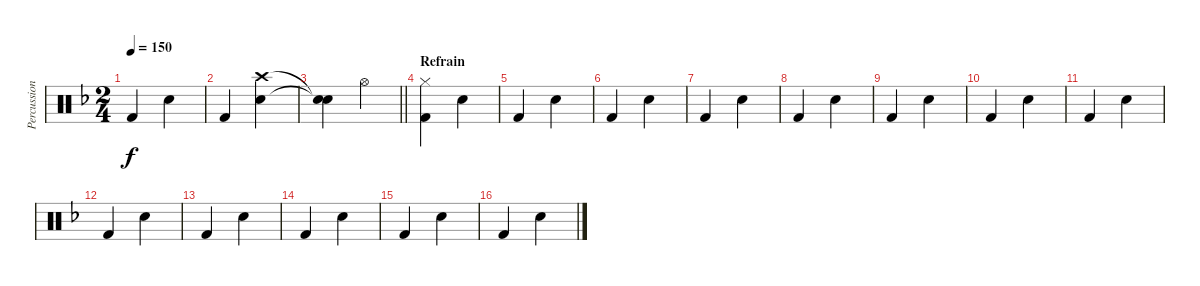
\track ("Percussions" "Percussion") {instrument percussion}
\staff {score}
\articulation defaults
\ts (2 4)
\tempo 150
\clef neutral
\ks f "Kick (hit) 2".4{dy f} "Snare (hit) 2".4
|
"Kick (hit) 2".4 ("Crash high (hit)" "Snare (hit) 2").4 |
\barLineRight lightlight
("Snare (hit)"{t} "Snare (hit)"{t}).4 "Hi-Hat (open)".4 |
\section ("" "Refrain")
("Hi-Hat (closed)" "Kick (hit) 2").4 "Snare (hit) 2".4 |
"Kick (hit) 2".4 "Snare (hit) 2".4 |
"Kick (hit) 2".4 "Snare (hit) 2".4 |
"Kick (hit) 2".4 "Snare (hit) 2".4 |
"Kick (hit) 2".4 "Snare (hit) 2".4 |
"Kick (hit) 2".4 "Snare (hit) 2".4 |
"Kick (hit) 2".4 "Snare (hit) 2".4 |
"Kick (hit) 2".4 "Snare (hit) 2".4 |
"Kick (hit) 2".4 "Snare (hit) 2".4 |
"Kick (hit) 2".4 "Snare (hit) 2".4 |
"Kick (hit) 2".4 "Snare (hit) 2".4 |
"Kick (hit) 2".4 "Snare (hit) 2".4 |
"Kick (hit) 2".4 "Snare (hit) 2".4
